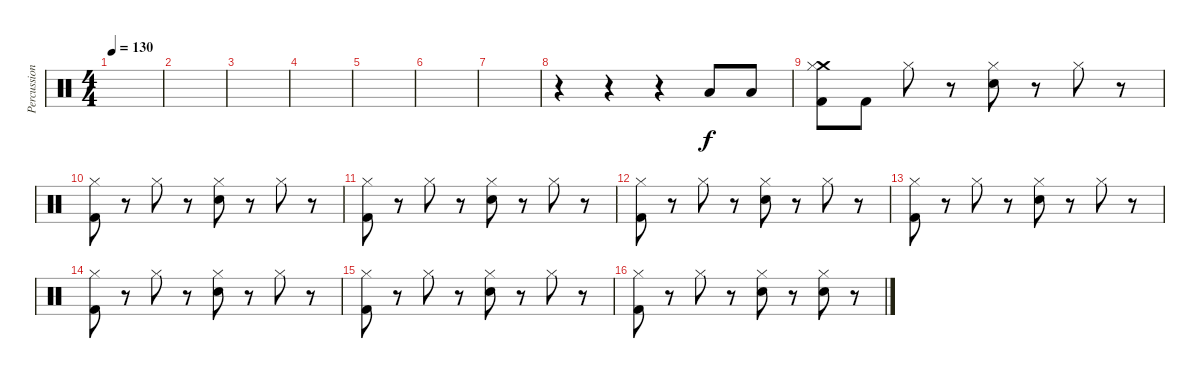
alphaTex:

\track ("Percussion" "Percussion") {instrument percussion}
\staff {score}
\articulation defaults
\ts (4 4)
\tempo 130
\clef neutral
\ks c
|
|
|
|
|
|
|
r.4 r.4 r.4 "Low Tom (hit)".8 "Low Floor Tom (hit)".8 |
("Crash medium (hit)" "Hi-Hat (closed)" "Kick (hit) 2").8 "Kick (hit) 2".8 "Hi-Hat (closed)".8 r.8 ("Hi-Hat (closed)" "Snare (hit) 2").8 r.8 "Hi-Hat (closed)".8 r.8 |
("Hi-Hat (closed)" "Kick (hit) 2").8 r.8 "Hi-Hat (closed)".8 r.8 ("Hi-Hat (closed)" "Snare (hit) 2").8 r.8 "Hi-Hat (closed)".8 r.8 |
("Hi-Hat (closed)" "Kick (hit) 2").8 r.8 "Hi-Hat (closed)".8 r.8 ("Hi-Hat (closed)" "Snare (hit) 2").8 r.8 "Hi-Hat (closed)".8 r.8 |
("Hi-Hat (closed)" "Kick (hit) 2").8 r.8 "Hi-Hat (closed)".8 r.8 ("Hi-Hat (closed)" "Snare (hit) 2").8 r.8 "Hi-Hat (closed)".8 r.8 |
("Hi-Hat (closed)" "Kick (hit) 2").8 r.8 "Hi-Hat (closed)".8 r.8 ("Hi-Hat (closed)" "Snare (hit) 2").8 r.8 "Hi-Hat (closed)".8 r.8 |
("Hi-Hat (closed)" "Kick (hit) 2").8 r.8 "Hi-Hat (closed)".8 r.8 ("Hi-Hat (closed)" "Snare (hit) 2").8 r.8 "Hi-Hat (closed)".8 r.8 |
("Hi-Hat (closed)" "Kick (hit) 2").8 r.8 "Hi-Hat (closed)".8 r.8 ("Hi-Hat (closed)" "Snare (hit) 2").8 r.8 "Hi-Hat (closed)".8 r.8 |
("Hi-Hat (closed)" "Kick (hit) 2").8 r.8 "Hi-Hat (closed)".8 r.8 ("Hi-Hat (closed)" "Snare (hit) 2").8 r.8 ("Hi-Hat (closed)" "Snare (hit) 2").8 r.8
